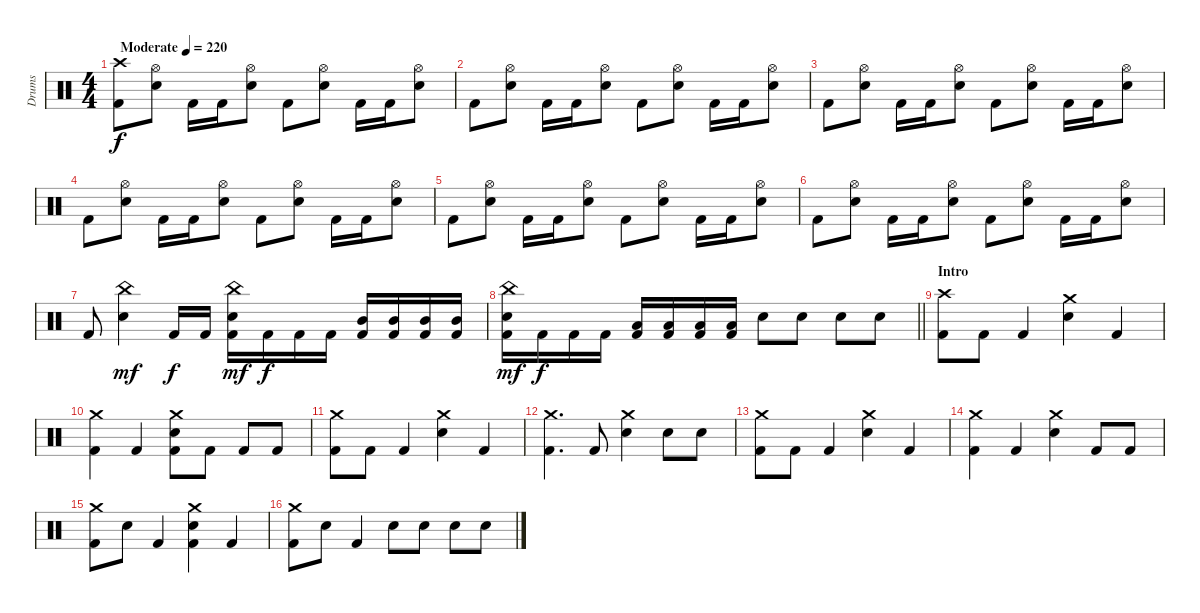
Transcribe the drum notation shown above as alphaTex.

\track ("Drums" "Drums") {instrument percussion}
\staff {score}
\articulation defaults
\ts (4 4)
\tempo (220 "Moderate")
\clef neutral
\ks c
("Crash high (hit)" "Kick (hit) 2").8{dy f} ("Hi-Hat (open)" "Snare (hit) 2").8 "Kick (hit) 2".16 "Kick (hit) 2".16 ("Hi-Hat (open)" "Snare (hit) 2").8 "Kick (hit) 2".8 ("Hi-Hat (open)" "Snare (hit) 2").8 "Kick (hit) 2".16 "Kick (hit) 2".16 ("Hi-Hat (open)" "Snare (hit) 2").8 |
"Kick (hit) 2".8 ("Hi-Hat (open)" "Snare (hit) 2").8 "Kick (hit) 2".16 "Kick (hit) 2".16 ("Hi-Hat (open)" "Snare (hit) 2").8 "Kick (hit) 2".8 ("Hi-Hat (open)" "Snare (hit) 2").8 "Kick (hit) 2".16 "Kick (hit) 2".16 ("Hi-Hat (open)" "Snare (hit) 2").8 |
"Kick (hit) 2".8 ("Hi-Hat (open)" "Snare (hit) 2").8 "Kick (hit) 2".16 "Kick (hit) 2".16 ("Hi-Hat (open)" "Snare (hit) 2").8 "Kick (hit) 2".8 ("Hi-Hat (open)" "Snare (hit) 2").8 "Kick (hit) 2".16 "Kick (hit) 2".16 ("Hi-Hat (open)" "Snare (hit) 2").8 |
"Kick (hit) 2".8 ("Hi-Hat (open)" "Snare (hit) 2").8 "Kick (hit) 2".16 "Kick (hit) 2".16 ("Hi-Hat (open)" "Snare (hit) 2").8 "Kick (hit) 2".8 ("Hi-Hat (open)" "Snare (hit) 2").8 "Kick (hit) 2".16 "Kick (hit) 2".16 ("Hi-Hat (open)" "Snare (hit) 2").8 |
"Kick (hit) 2".8 ("Hi-Hat (open)" "Snare (hit) 2").8 "Kick (hit) 2".16 "Kick (hit) 2".16 ("Hi-Hat (open)" "Snare (hit) 2").8 "Kick (hit) 2".8 ("Hi-Hat (open)" "Snare (hit) 2").8 "Kick (hit) 2".16 "Kick (hit) 2".16 ("Hi-Hat (open)" "Snare (hit) 2").8 |
"Kick (hit) 2".8 ("Hi-Hat (open)" "Snare (hit) 2").8 "Kick (hit) 2".16 "Kick (hit) 2".16 ("Hi-Hat (open)" "Snare (hit) 2").8 "Kick (hit) 2".8 ("Hi-Hat (open)" "Snare (hit) 2").8 "Kick (hit) 2".16 "Kick (hit) 2".16 ("Hi-Hat (open)" "Snare (hit) 2").8 |
"Kick (hit) 2".8 ("China (hit)" "Snare (hit) 2").4{dy mf} "Kick (hit) 2".16{dy f} "Kick (hit) 2".16 ("China (hit)" "Snare (hit) 2" "Kick (hit) 2").16{dy mf} "Kick (hit) 2".16{dy f} "Kick (hit) 2".16 "Kick (hit) 2".16 ("Mid Tom (hit)" "Kick (hit) 2").16 ("Mid Tom (hit)" "Kick (hit) 2").16 ("Mid Tom (hit)" "Kick (hit) 2").16 ("Mid Tom (hit)" "Kick (hit) 2").16 |
\barLineRight lightlight
("China (hit)" "Snare (hit) 2" "Kick (hit) 2").16{dy mf} "Kick (hit) 2".16{dy f} "Kick (hit) 2".16 "Kick (hit) 2".16 ("Low Tom (hit)" "Kick (hit) 2").16 ("Low Tom (hit)" "Kick (hit) 2").16 ("Low Tom (hit)" "Kick (hit) 2").16 ("Low Tom (hit)" "Kick (hit) 2").16 "Snare (hit) 2".8 "Snare (hit) 2".8 "Snare (hit) 2".8 "Snare (hit) 2".8 |
\section ("" "Intro")
("Crash high (hit)" "Kick (hit) 2").8 "Kick (hit) 2".8 "Kick (hit) 2".4 ("Crash medium (hit)" "Snare (hit) 2").4 "Kick (hit) 2".4 |
("Crash medium (hit)" "Kick (hit) 2").4 "Kick (hit) 2".4 ("Crash medium (hit)" "Snare (hit) 2" "Kick (hit) 2").8 "Kick (hit) 2".8 "Kick (hit) 2".8 "Kick (hit) 2".8 |
("Crash medium (hit)" "Kick (hit) 2").8 "Kick (hit) 2".8 "Kick (hit) 2".4 ("Crash medium (hit)" "Snare (hit) 2").4 "Kick (hit) 2".4 |
("Crash medium (hit)" "Kick (hit) 2").4{d} "Kick (hit) 2".8 ("Crash medium (hit)" "Snare (hit) 2").4 "Snare (hit) 2".8 "Snare (hit) 2".8 |
("Crash medium (hit)" "Kick (hit) 2").8 "Kick (hit) 2".8 "Kick (hit) 2".4 ("Crash medium (hit)" "Snare (hit) 2").4 "Kick (hit) 2".4 |
("Crash medium (hit)" "Kick (hit) 2").4 "Kick (hit) 2".4 ("Crash medium (hit)" "Snare (hit) 2").4 "Kick (hit) 2".8 "Kick (hit) 2".8 |
("Crash medium (hit)" "Kick (hit) 2").8 "Snare (hit) 2".8 "Kick (hit) 2".4 ("Crash medium (hit)" "Snare (hit) 2" "Kick (hit) 2").4 "Kick (hit) 2".4 |
("Crash medium (hit)" "Kick (hit) 2").8 "Snare (hit) 2".8 "Kick (hit) 2".4 "Snare (hit) 2".8 "Snare (hit) 2".8 "Snare (hit) 2".8 "Snare (hit) 2".8
